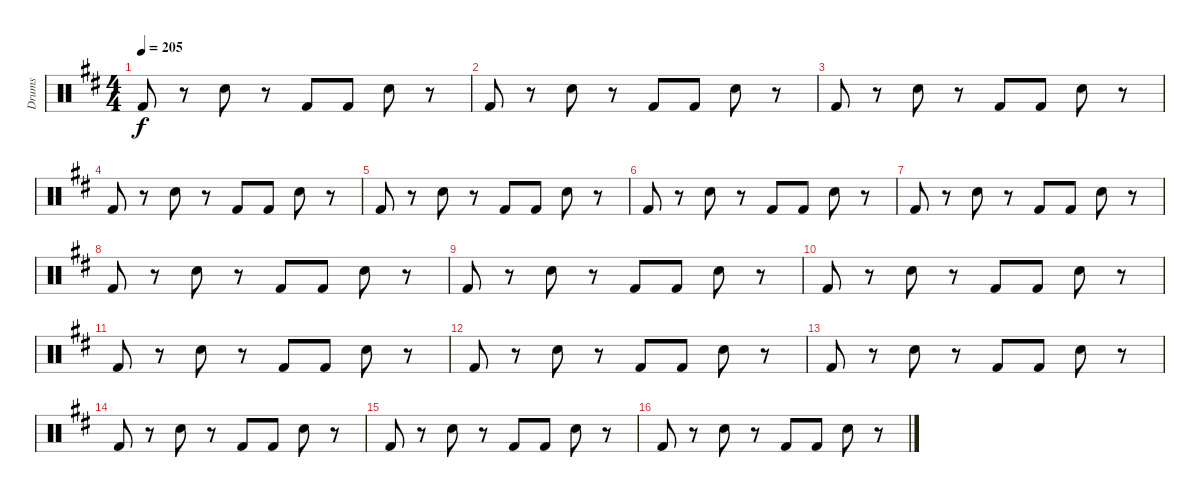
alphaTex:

\track ("Drums" "Drums") {instrument percussion}
\staff {score}
\articulation defaults
\ts (4 4)
\tempo 205
\clef neutral
\ks d "Kick (hit) 2".8{dy f}
r.8 "Snare (hit) 2".8 r.8 "Kick (hit) 2".8 "Kick (hit) 2".8 "Snare (hit) 2".8 r.8 |
"Kick (hit) 2".8 r.8 "Snare (hit) 2".8 r.8 "Kick (hit) 2".8 "Kick (hit) 2".8 "Snare (hit) 2".8 r.8 |
"Kick (hit) 2".8 r.8 "Snare (hit) 2".8 r.8 "Kick (hit) 2".8 "Kick (hit) 2".8 "Snare (hit) 2".8 r.8 |
"Kick (hit) 2".8 r.8 "Snare (hit) 2".8 r.8 "Kick (hit) 2".8 "Kick (hit) 2".8 "Snare (hit) 2".8 r.8 |
"Kick (hit) 2".8 r.8 "Snare (hit) 2".8 r.8 "Kick (hit) 2".8 "Kick (hit) 2".8 "Snare (hit) 2".8 r.8 |
"Kick (hit) 2".8 r.8 "Snare (hit) 2".8 r.8 "Kick (hit) 2".8 "Kick (hit) 2".8 "Snare (hit) 2".8 r.8 |
"Kick (hit) 2".8 r.8 "Snare (hit) 2".8 r.8 "Kick (hit) 2".8 "Kick (hit) 2".8 "Snare (hit) 2".8 r.8 |
"Kick (hit) 2".8 r.8 "Snare (hit) 2".8 r.8 "Kick (hit) 2".8 "Kick (hit) 2".8 "Snare (hit) 2".8 r.8 |
"Kick (hit) 2".8 r.8 "Snare (hit) 2".8 r.8 "Kick (hit) 2".8 "Kick (hit) 2".8 "Snare (hit) 2".8 r.8 |
"Kick (hit) 2".8 r.8 "Snare (hit) 2".8 r.8 "Kick (hit) 2".8 "Kick (hit) 2".8 "Snare (hit) 2".8 r.8 |
"Kick (hit) 2".8 r.8 "Snare (hit) 2".8 r.8 "Kick (hit) 2".8 "Kick (hit) 2".8 "Snare (hit) 2".8 r.8 |
"Kick (hit) 2".8 r.8 "Snare (hit) 2".8 r.8 "Kick (hit) 2".8 "Kick (hit) 2".8 "Snare (hit) 2".8 r.8 |
"Kick (hit) 2".8 r.8 "Snare (hit) 2".8 r.8 "Kick (hit) 2".8 "Kick (hit) 2".8 "Snare (hit) 2".8 r.8 |
"Kick (hit) 2".8 r.8 "Snare (hit) 2".8 r.8 "Kick (hit) 2".8 "Kick (hit) 2".8 "Snare (hit) 2".8 r.8 |
"Kick (hit) 2".8 r.8 "Snare (hit) 2".8 r.8 "Kick (hit) 2".8 "Kick (hit) 2".8 "Snare (hit) 2".8 r.8 |
"Kick (hit) 2".8 r.8 "Snare (hit) 2".8 r.8 "Kick (hit) 2".8 "Kick (hit) 2".8 "Snare (hit) 2".8 r.8
